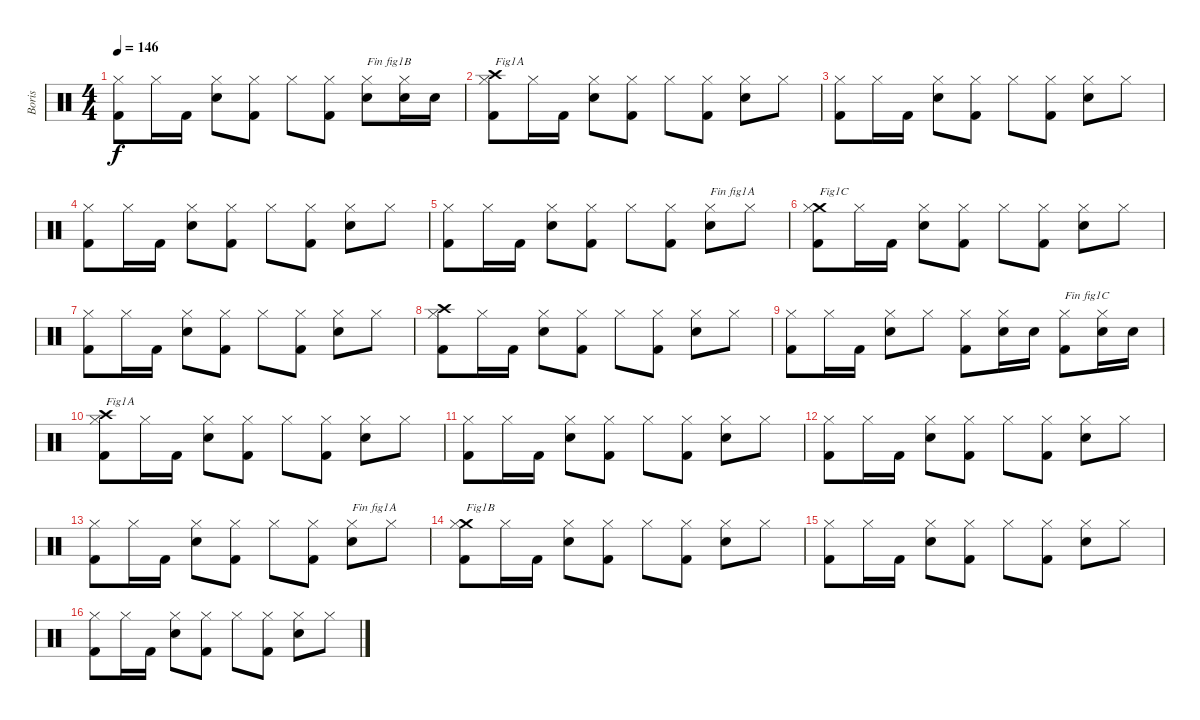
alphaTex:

\track ("Boris" "Boris") {instrument percussion}
\staff {score}
\articulation defaults
\ts (4 4)
\tempo 146
\clef neutral
\ks c
("Kick (hit) 2" "Hi-Hat (closed)").8{dy f} "Hi-Hat (closed)".16 "Kick (hit) 2".16 ("Electric Snare (hit)" "Hi-Hat (closed)").8 ("Kick (hit) 2" "Hi-Hat (closed)").8 "Hi-Hat (closed)".8 ("Kick (hit) 2" "Hi-Hat (closed)").8 ("Electric Snare (hit)" "Hi-Hat (closed)").8{txt "Fin fig1B"} ("Electric Snare (hit)" "Hi-Hat (closed)").16 "Electric Snare (hit)".16 |
("Kick (hit) 2" "Crash high (hit)" "Hi-Hat (closed)").8{txt "Fig1A"} "Hi-Hat (closed)".16 "Kick (hit) 2".16 ("Electric Snare (hit)" "Hi-Hat (closed)").8 ("Kick (hit) 2" "Hi-Hat (closed)").8 "Hi-Hat (closed)".8 ("Kick (hit) 2" "Hi-Hat (closed)").8 ("Electric Snare (hit)" "Hi-Hat (closed)").8 "Hi-Hat (closed)".8 |
("Kick (hit) 2" "Hi-Hat (closed)").8 "Hi-Hat (closed)".16 "Kick (hit) 2".16 ("Electric Snare (hit)" "Hi-Hat (closed)").8 ("Kick (hit) 2" "Hi-Hat (closed)").8 "Hi-Hat (closed)".8 ("Kick (hit) 2" "Hi-Hat (closed)").8 ("Electric Snare (hit)" "Hi-Hat (closed)").8 "Hi-Hat (closed)".8 |
("Kick (hit) 2" "Hi-Hat (closed)").8 "Hi-Hat (closed)".16 "Kick (hit) 2".16 ("Electric Snare (hit)" "Hi-Hat (closed)").8 ("Kick (hit) 2" "Hi-Hat (closed)").8 "Hi-Hat (closed)".8 ("Kick (hit) 2" "Hi-Hat (closed)").8 ("Electric Snare (hit)" "Hi-Hat (closed)").8 "Hi-Hat (closed)".8 |
("Kick (hit) 2" "Hi-Hat (closed)").8 "Hi-Hat (closed)".16 "Kick (hit) 2".16 ("Electric Snare (hit)" "Hi-Hat (closed)").8 ("Kick (hit) 2" "Hi-Hat (closed)").8 "Hi-Hat (closed)".8 ("Kick (hit) 2" "Hi-Hat (closed)").8 ("Electric Snare (hit)" "Hi-Hat (closed)").8{txt "Fin fig1A"} "Hi-Hat (closed)".8 |
("Kick (hit) 2" "Crash medium (hit)" "Hi-Hat (closed)").8{txt "Fig1C"} "Hi-Hat (closed)".16 "Kick (hit) 2".16 ("Electric Snare (hit)" "Hi-Hat (closed)").8 ("Kick (hit) 2" "Hi-Hat (closed)").8 "Hi-Hat (closed)".8 ("Kick (hit) 2" "Hi-Hat (closed)").8 ("Electric Snare (hit)" "Hi-Hat (closed)").8 "Hi-Hat (closed)".8 |
("Kick (hit) 2" "Hi-Hat (closed)").8 "Hi-Hat (closed)".16 "Kick (hit) 2".16 ("Electric Snare (hit)" "Hi-Hat (closed)").8 ("Kick (hit) 2" "Hi-Hat (closed)").8 "Hi-Hat (closed)".8 ("Kick (hit) 2" "Hi-Hat (closed)").8 ("Electric Snare (hit)" "Hi-Hat (closed)").8 "Hi-Hat (closed)".8 |
("Kick (hit) 2" "Crash high (hit)" "Hi-Hat (closed)").8 "Hi-Hat (closed)".16 "Kick (hit) 2".16 ("Electric Snare (hit)" "Hi-Hat (closed)").8 ("Kick (hit) 2" "Hi-Hat (closed)").8 "Hi-Hat (closed)".8 ("Kick (hit) 2" "Hi-Hat (closed)").8 ("Electric Snare (hit)" "Hi-Hat (closed)").8 "Hi-Hat (closed)".8 |
("Kick (hit) 2" "Hi-Hat (closed)").8 "Hi-Hat (closed)".16 "Kick (hit) 2".16 ("Electric Snare (hit)" "Hi-Hat (closed)").8 "Hi-Hat (closed)".8 ("Kick (hit) 2" "Hi-Hat (closed)").8 ("Electric Snare (hit)" "Hi-Hat (closed)").16 "Electric Snare (hit)".16 ("Kick (hit) 2" "Hi-Hat (closed)").8{txt "Fin fig1C"} ("Electric Snare (hit)" "Hi-Hat (closed)").16 "Electric Snare (hit)".16 |
("Kick (hit) 2" "Crash high (hit)" "Hi-Hat (closed)").8{txt "Fig1A"} "Hi-Hat (closed)".16 "Kick (hit) 2".16 ("Electric Snare (hit)" "Hi-Hat (closed)").8 ("Kick (hit) 2" "Hi-Hat (closed)").8 "Hi-Hat (closed)".8 ("Kick (hit) 2" "Hi-Hat (closed)").8 ("Electric Snare (hit)" "Hi-Hat (closed)").8 "Hi-Hat (closed)".8 |
("Kick (hit) 2" "Hi-Hat (closed)").8 "Hi-Hat (closed)".16 "Kick (hit) 2".16 ("Electric Snare (hit)" "Hi-Hat (closed)").8 ("Kick (hit) 2" "Hi-Hat (closed)").8 "Hi-Hat (closed)".8 ("Kick (hit) 2" "Hi-Hat (closed)").8 ("Electric Snare (hit)" "Hi-Hat (closed)").8 "Hi-Hat (closed)".8 |
("Kick (hit) 2" "Hi-Hat (closed)").8 "Hi-Hat (closed)".16 "Kick (hit) 2".16 ("Electric Snare (hit)" "Hi-Hat (closed)").8 ("Kick (hit) 2" "Hi-Hat (closed)").8 "Hi-Hat (closed)".8 ("Kick (hit) 2" "Hi-Hat (closed)").8 ("Electric Snare (hit)" "Hi-Hat (closed)").8 "Hi-Hat (closed)".8 |
("Kick (hit) 2" "Hi-Hat (closed)").8 "Hi-Hat (closed)".16 "Kick (hit) 2".16 ("Electric Snare (hit)" "Hi-Hat (closed)").8 ("Kick (hit) 2" "Hi-Hat (closed)").8 "Hi-Hat (closed)".8 ("Kick (hit) 2" "Hi-Hat (closed)").8 ("Electric Snare (hit)" "Hi-Hat (closed)").8{txt "Fin fig1A"} "Hi-Hat (closed)".8 |
("Kick (hit) 2" "Crash medium (hit)" "Hi-Hat (closed)").8{txt "Fig1B"} "Hi-Hat (closed)".16 "Kick (hit) 2".16 ("Electric Snare (hit)" "Hi-Hat (closed)").8 ("Kick (hit) 2" "Hi-Hat (closed)").8 "Hi-Hat (closed)".8 ("Kick (hit) 2" "Hi-Hat (closed)").8 ("Electric Snare (hit)" "Hi-Hat (closed)").8 "Hi-Hat (closed)".8 |
("Kick (hit) 2" "Hi-Hat (closed)").8 "Hi-Hat (closed)".16 "Kick (hit) 2".16 ("Electric Snare (hit)" "Hi-Hat (closed)").8 ("Kick (hit) 2" "Hi-Hat (closed)").8 "Hi-Hat (closed)".8 ("Kick (hit) 2" "Hi-Hat (closed)").8 ("Electric Snare (hit)" "Hi-Hat (closed)").8 "Hi-Hat (closed)".8 |
("Kick (hit) 2" "Hi-Hat (closed)").8 "Hi-Hat (closed)".16 "Kick (hit) 2".16 ("Electric Snare (hit)" "Hi-Hat (closed)").8 ("Kick (hit) 2" "Hi-Hat (closed)").8 "Hi-Hat (closed)".8 ("Kick (hit) 2" "Hi-Hat (closed)").8 ("Electric Snare (hit)" "Hi-Hat (closed)").8 "Hi-Hat (closed)".8
